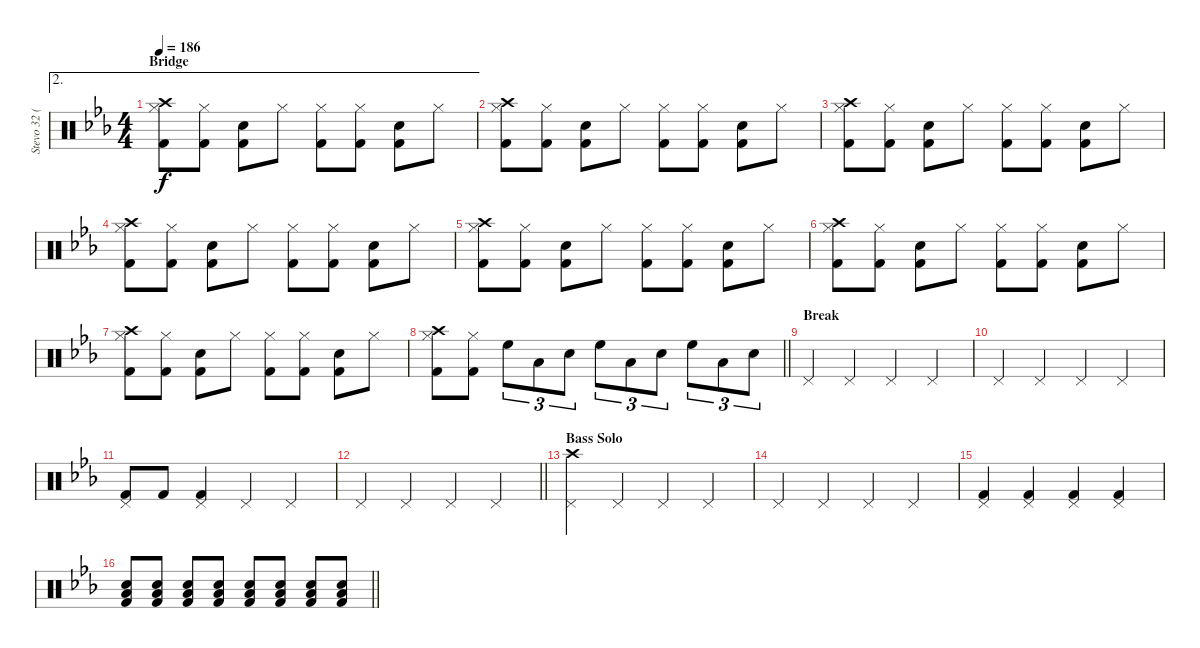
\track ("Stevo 32 (Drums)" "Stevo 32 (") {instrument percussion}
\staff {score}
\articulation defaults
\ae 2
\ts (4 4)
\section ("" "Bridge")
\tempo 186
\clef neutral
\ks eb
("Kick (hit) 2" "Crash high (hit)" "Hi-Hat (closed)").8{dy f} ("Kick (hit) 2" "Hi-Hat (closed)").8 ("Kick (hit) 2" "Snare (hit) 2").8 "Hi-Hat (closed)".8 ("Kick (hit) 2" "Hi-Hat (closed)").8 ("Kick (hit) 2" "Hi-Hat (closed)").8 ("Kick (hit) 2" "Snare (hit) 2").8 "Hi-Hat (closed)".8 |
("Kick (hit) 2" "Crash high (hit)" "Hi-Hat (closed)").8 ("Kick (hit) 2" "Hi-Hat (closed)").8 ("Kick (hit) 2" "Snare (hit) 2").8 "Hi-Hat (closed)".8 ("Kick (hit) 2" "Hi-Hat (closed)").8 ("Kick (hit) 2" "Hi-Hat (closed)").8 ("Kick (hit) 2" "Snare (hit) 2").8 "Hi-Hat (closed)".8 |
("Kick (hit) 2" "Crash high (hit)" "Hi-Hat (closed)").8 ("Kick (hit) 2" "Hi-Hat (closed)").8 ("Kick (hit) 2" "Snare (hit) 2").8 "Hi-Hat (closed)".8 ("Kick (hit) 2" "Hi-Hat (closed)").8 ("Kick (hit) 2" "Hi-Hat (closed)").8 ("Kick (hit) 2" "Snare (hit) 2").8 "Hi-Hat (closed)".8 |
("Kick (hit) 2" "Crash high (hit)" "Hi-Hat (closed)").8 ("Kick (hit) 2" "Hi-Hat (closed)").8 ("Kick (hit) 2" "Snare (hit) 2").8 "Hi-Hat (closed)".8 ("Kick (hit) 2" "Hi-Hat (closed)").8 ("Kick (hit) 2" "Hi-Hat (closed)").8 ("Kick (hit) 2" "Snare (hit) 2").8 "Hi-Hat (closed)".8 |
("Kick (hit) 2" "Crash high (hit)" "Hi-Hat (closed)").8 ("Kick (hit) 2" "Hi-Hat (closed)").8 ("Kick (hit) 2" "Snare (hit) 2").8 "Hi-Hat (closed)".8 ("Kick (hit) 2" "Hi-Hat (closed)").8 ("Kick (hit) 2" "Hi-Hat (closed)").8 ("Kick (hit) 2" "Snare (hit) 2").8 "Hi-Hat (closed)".8 |
("Kick (hit) 2" "Crash high (hit)" "Hi-Hat (closed)").8 ("Kick (hit) 2" "Hi-Hat (closed)").8 ("Kick (hit) 2" "Snare (hit) 2").8 "Hi-Hat (closed)".8 ("Kick (hit) 2" "Hi-Hat (closed)").8 ("Kick (hit) 2" "Hi-Hat (closed)").8 ("Kick (hit) 2" "Snare (hit) 2").8 "Hi-Hat (closed)".8 |
("Kick (hit) 2" "Crash high (hit)" "Hi-Hat (closed)").8 ("Kick (hit) 2" "Hi-Hat (closed)").8 ("Kick (hit) 2" "Snare (hit) 2").8 "Hi-Hat (closed)".8 ("Kick (hit) 2" "Hi-Hat (closed)").8 ("Kick (hit) 2" "Hi-Hat (closed)").8 ("Kick (hit) 2" "Snare (hit) 2").8 "Hi-Hat (closed)".8 |
\barLineRight lightlight
("Kick (hit) 2" "Crash high (hit)" "Hi-Hat (closed)").8 ("Kick (hit) 2" "Hi-Hat (closed)").8 "High Floor Tom (hit)".8{tu (3 2)} "Low Tom (hit)".8{tu (3 2)} "Snare (hit) 2".8{tu (3 2)} "High Floor Tom (hit)".8{tu (3 2)} "Low Tom (hit)".8{tu (3 2)} "Snare (hit) 2".8{tu (3 2)} "High Floor Tom (hit)".8{tu (3 2)} "Low Tom (hit)".8{tu (3 2)} "Snare (hit) 2".8{tu (3 2)} |
\section ("" "Break")
"Pedal Hi-Hat (hit)".4 "Pedal Hi-Hat (hit)".4 "Pedal Hi-Hat (hit)".4 "Pedal Hi-Hat (hit)".4 |
"Pedal Hi-Hat (hit)".4 "Pedal Hi-Hat (hit)".4 "Pedal Hi-Hat (hit)".4 "Pedal Hi-Hat (hit)".4 |
("Kick (hit) 2" "Pedal Hi-Hat (hit)").8 "Kick (hit) 2".8 ("Kick (hit) 2" "Pedal Hi-Hat (hit)").4 "Pedal Hi-Hat (hit)".4 "Pedal Hi-Hat (hit)".4 |
\barLineRight lightlight "Pedal Hi-Hat (hit)".4 "Pedal Hi-Hat (hit)".4 "Pedal Hi-Hat (hit)".4 "Pedal Hi-Hat (hit)".4
|
\section ("" "Bass Solo")
("Crash high (hit)" "Pedal Hi-Hat (hit)").4 "Pedal Hi-Hat (hit)".4 "Pedal Hi-Hat (hit)".4 "Pedal Hi-Hat (hit)".4 |
"Pedal Hi-Hat (hit)".4 "Pedal Hi-Hat (hit)".4 "Pedal Hi-Hat (hit)".4 "Pedal Hi-Hat (hit)".4 |
("Kick (hit) 2" "Pedal Hi-Hat (hit)").4 ("Kick (hit) 2" "Pedal Hi-Hat (hit)").4 ("Kick (hit) 2" "Pedal Hi-Hat (hit)").4 ("Kick (hit) 2" "Pedal Hi-Hat (hit)").4 |
\barLineRight lightlight
("Kick (hit) 2" "Low Floor Tom (hit)" "Snare (hit) 2").8 ("Kick (hit) 2" "Low Floor Tom (hit)" "Snare (hit) 2").8 ("Kick (hit) 2" "Low Floor Tom (hit)" "Snare (hit) 2").8 ("Kick (hit) 2" "Low Floor Tom (hit)" "Snare (hit) 2").8 ("Kick (hit) 2" "Low Floor Tom (hit)" "Snare (hit) 2").8 ("Kick (hit) 2" "Low Floor Tom (hit)" "Snare (hit) 2").8 ("Kick (hit) 2" "Low Floor Tom (hit)" "Snare (hit) 2").8 ("Kick (hit) 2" "Low Floor Tom (hit)" "Snare (hit) 2").8
